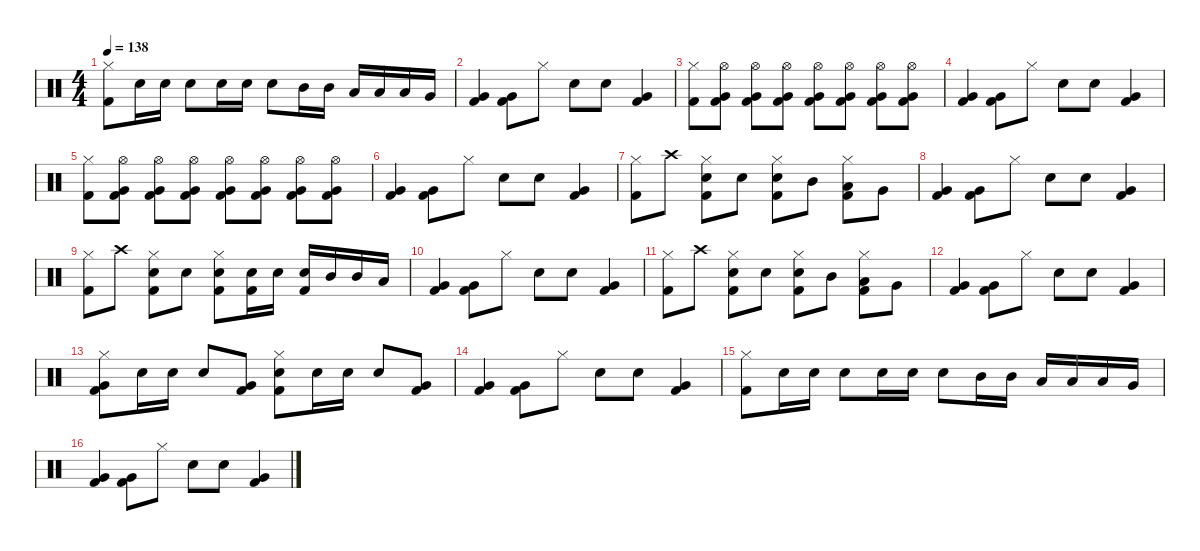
\defaultSystemsLayout 4
\hideDynamics
\bracketExtendMode nobrackets
\singleTrackTrackNamePolicy hidden
\multiTrackTrackNamePolicy hidden
\otherSystemsTrackNameOrientation horizontal
\track ("Drums" "drm.") {instrument percussion}
\staff {score}
\articulation defaults
\ts (4 4)
\tempo 138
\clef neutral
\ks c
("Hi-Hat (closed)" "Kick (hit) 2").8{dy mp beam Down} "Snare (hit) 2".16{dy f beam Down} "Snare (hit) 2".16{beam Down} "Snare (hit) 2".8{beam Down} "Snare (hit) 2".16{beam Down} "Snare (hit) 2".16{beam Down} "Snare (hit) 2".8{beam Down} "Mid Tom (hit)".16{beam Down} "Mid Tom (hit)".16{beam Down} "Low Tom (hit)".16{beam Up} "Low Tom (hit)".16{beam Up} "Low Tom (hit)".16{beam Up} "Very Low Tom (hit)".16{beam Up} |
("Very Low Tom (hit)" "Kick (hit) 2").4{dy fff beam Up} ("Very Low Tom (hit)" "Kick (hit) 2").8{dy mp beam Down} "Hi-Hat (closed)".8{dy fff beam Down} "Snare (hit) 2".8{dy f beam Down} "Snare (hit) 2".8{dy mp beam Down} ("Very Low Tom (hit)" "Kick (hit) 2").4{beam Up} |
("Hi-Hat (closed)" "Kick (hit) 2").8{beam Down} ("Hi-Hat (open)" "Very Low Tom (hit)" "Kick (hit) 2").8{dy f beam Down} ("Hi-Hat (open)" "Very Low Tom (hit)" "Kick (hit) 2").8{beam Down} ("Hi-Hat (open)" "Very Low Tom (hit)" "Kick (hit) 2").8{beam Down} ("Hi-Hat (open)" "Very Low Tom (hit)" "Kick (hit) 2").8{beam Down} ("Hi-Hat (open)" "Very Low Tom (hit)" "Kick (hit) 2").8{beam Down} ("Hi-Hat (open)" "Very Low Tom (hit)" "Kick (hit) 2").8{beam Down} ("Hi-Hat (open)" "Very Low Tom (hit)" "Kick (hit) 2").8{beam Down} |
("Very Low Tom (hit)" "Kick (hit) 2").4{dy fff beam Up} ("Very Low Tom (hit)" "Kick (hit) 2").8{dy mp beam Down} "Hi-Hat (closed)".8{dy fff beam Down} "Snare (hit) 2".8{dy f beam Down} "Snare (hit) 2".8{dy mp beam Down} ("Very Low Tom (hit)" "Kick (hit) 2").4{beam Up} |
("Hi-Hat (closed)" "Kick (hit) 2").8{beam Down} ("Hi-Hat (open)" "Very Low Tom (hit)" "Kick (hit) 2").8{dy f beam Down} ("Hi-Hat (open)" "Very Low Tom (hit)" "Kick (hit) 2").8{beam Down} ("Hi-Hat (open)" "Very Low Tom (hit)" "Kick (hit) 2").8{beam Down} ("Hi-Hat (open)" "Very Low Tom (hit)" "Kick (hit) 2").8{beam Down} ("Hi-Hat (open)" "Very Low Tom (hit)" "Kick (hit) 2").8{beam Down} ("Hi-Hat (open)" "Very Low Tom (hit)" "Kick (hit) 2").8{beam Down} ("Hi-Hat (open)" "Very Low Tom (hit)" "Kick (hit) 2").8{beam Down} |
("Very Low Tom (hit)" "Kick (hit) 2").4{dy fff beam Up} ("Very Low Tom (hit)" "Kick (hit) 2").8{dy mp beam Down} "Hi-Hat (closed)".8{dy fff beam Down} "Snare (hit) 2".8{dy f beam Down} "Snare (hit) 2".8{dy mp beam Down} ("Very Low Tom (hit)" "Kick (hit) 2").4{beam Up} |
("Hi-Hat (closed)" "Kick (hit) 2").8{beam Down} "Crash high (hit)".8{beam Down} ("Hi-Hat (closed)" "Snare (hit) 2" "Kick (hit) 2").8{beam Down} "Snare (hit) 2".8{dy f beam Down} ("Hi-Hat (closed)" "Snare (hit) 2" "Kick (hit) 2").8{dy mp beam Down} "Mid Tom (hit)".8{beam Down} ("Hi-Hat (closed)" "Low Tom (hit)" "Kick (hit) 2").8{beam Down} "Very Low Tom (hit)".8{beam Down} |
("Very Low Tom (hit)" "Kick (hit) 2").4{dy fff beam Up} ("Very Low Tom (hit)" "Kick (hit) 2").8{dy mp beam Down} "Hi-Hat (closed)".8{dy fff beam Down} "Snare (hit) 2".8{dy f beam Down} "Snare (hit) 2".8{dy mp beam Down} ("Very Low Tom (hit)" "Kick (hit) 2").4{beam Up} |
("Hi-Hat (closed)" "Kick (hit) 2").8{beam Down} "Crash high (hit)".8{beam Down} ("Hi-Hat (closed)" "Snare (hit) 2" "Kick (hit) 2").8{dy f beam Down} "Snare (hit) 2".8{beam Down} ("Hi-Hat (closed)" "Snare (hit) 2" "Kick (hit) 2").8{beam Down} ("Snare (hit) 2" "Kick (hit) 2").16{beam Down} "Snare (hit) 2".16{beam Down} ("Snare (hit) 2" "Kick (hit) 2").16{beam Up} "Mid Tom (hit)".16{beam Up} "Mid Tom (hit)".16{beam Up} "Low Tom (hit)".16{beam Up} |
("Very Low Tom (hit)" "Kick (hit) 2").4{dy fff beam Up} ("Very Low Tom (hit)" "Kick (hit) 2").8{dy mp beam Down} "Hi-Hat (closed)".8{dy fff beam Down} "Snare (hit) 2".8{dy f beam Down} "Snare (hit) 2".8{dy mp beam Down} ("Very Low Tom (hit)" "Kick (hit) 2").4{beam Up} |
("Hi-Hat (closed)" "Kick (hit) 2").8{beam Down} "Crash high (hit)".8{beam Down} ("Hi-Hat (closed)" "Snare (hit) 2" "Kick (hit) 2").8{beam Down} "Snare (hit) 2".8{dy f beam Down} ("Hi-Hat (closed)" "Snare (hit) 2" "Kick (hit) 2").8{dy mp beam Down} "Mid Tom (hit)".8{beam Down} ("Hi-Hat (closed)" "Low Tom (hit)" "Kick (hit) 2").8{beam Down} "Very Low Tom (hit)".8{beam Down} |
("Very Low Tom (hit)" "Kick (hit) 2").4{dy fff beam Up} ("Very Low Tom (hit)" "Kick (hit) 2").8{dy mp beam Down} "Hi-Hat (closed)".8{dy fff beam Down} "Snare (hit) 2".8{dy f beam Down} "Snare (hit) 2".8{dy mp beam Down} ("Very Low Tom (hit)" "Kick (hit) 2").4{beam Up} |
("Hi-Hat (closed)" "Very Low Tom (hit)" "Kick (hit) 2").8{beam Down} "Snare (hit) 2".16{dy f beam Down} "Snare (hit) 2".16{beam Down} "Snare (hit) 2".8{beam Up} ("Very Low Tom (hit)" "Kick (hit) 2").8{beam Up} ("Hi-Hat (closed)" "Snare (hit) 2" "Kick (hit) 2").8{beam Down} "Snare (hit) 2".16{beam Down} "Snare (hit) 2".16{beam Down} "Snare (hit) 2".8{beam Up} ("Very Low Tom (hit)" "Kick (hit) 2").8{beam Up} |
("Very Low Tom (hit)" "Kick (hit) 2").4{dy fff beam Up} ("Very Low Tom (hit)" "Kick (hit) 2").8{dy mp beam Down} "Hi-Hat (closed)".8{dy fff beam Down} "Snare (hit) 2".8{dy f beam Down} "Snare (hit) 2".8{dy mp beam Down} ("Very Low Tom (hit)" "Kick (hit) 2").4{beam Up} |
("Hi-Hat (closed)" "Kick (hit) 2").8{beam Down} "Snare (hit) 2".16{dy f beam Down} "Snare (hit) 2".16{beam Down} "Snare (hit) 2".8{beam Down} "Snare (hit) 2".16{beam Down} "Snare (hit) 2".16{beam Down} "Snare (hit) 2".8{beam Down} "Mid Tom (hit)".16{beam Down} "Mid Tom (hit)".16{beam Down} "Low Tom (hit)".16{beam Up} "Low Tom (hit)".16{beam Up} "Low Tom (hit)".16{beam Up} "Very Low Tom (hit)".16{beam Up} |
("Very Low Tom (hit)" "Kick (hit) 2").4{dy fff beam Up} ("Very Low Tom (hit)" "Kick (hit) 2").8{dy mp beam Down} "Hi-Hat (closed)".8{dy fff beam Down} "Snare (hit) 2".8{dy f beam Down} "Snare (hit) 2".8{dy mp beam Down} ("Very Low Tom (hit)" "Kick (hit) 2").4{beam Up}
